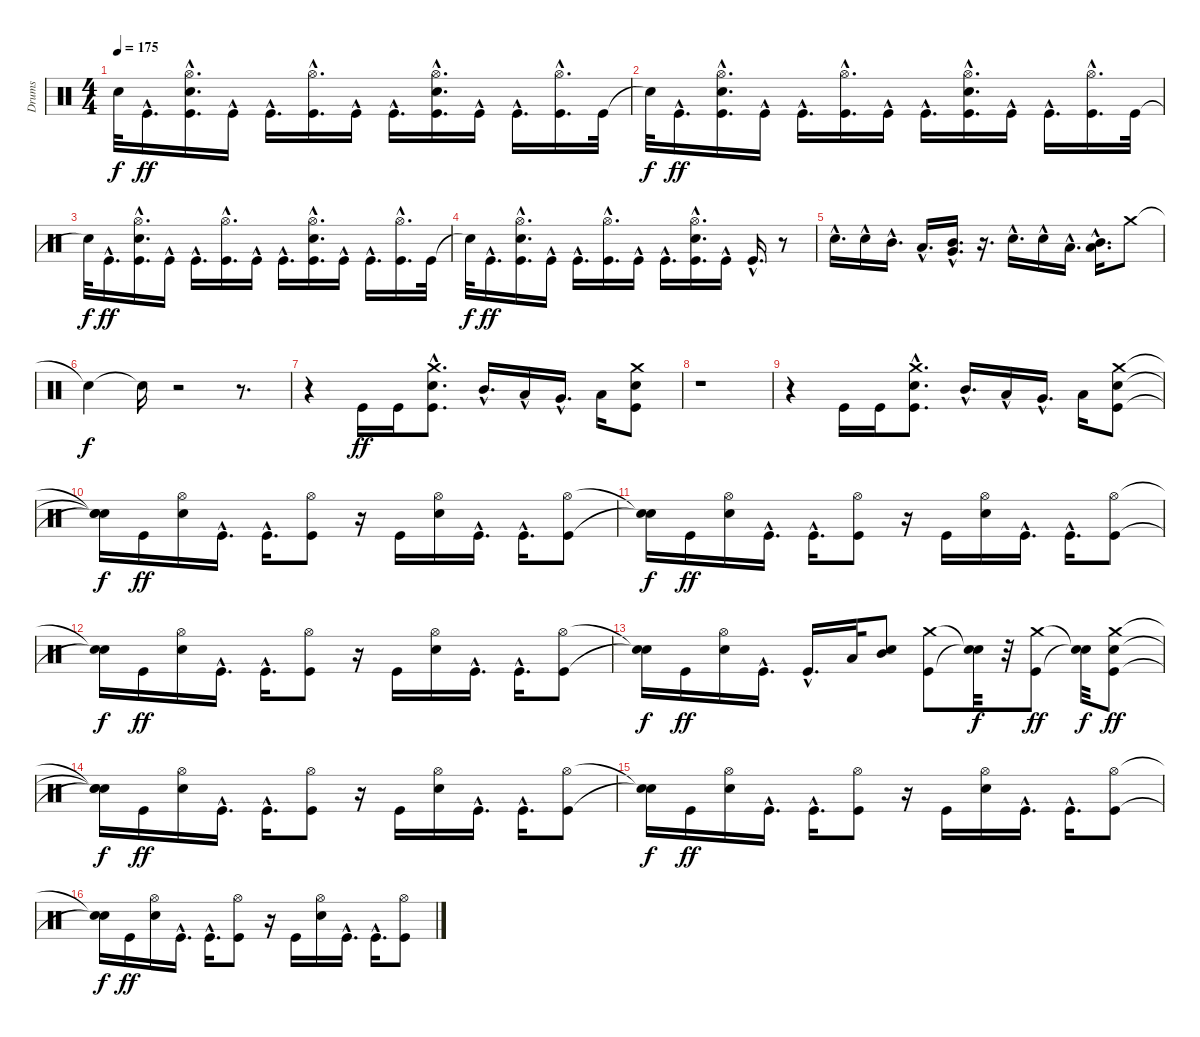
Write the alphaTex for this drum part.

\track ("Drums" "Drums") {instrument percussion}
\staff {score}
\articulation defaults
\ts (4 4)
\tempo 175
\clef neutral
\ks c "Snare (hit)"{t}.32{dy f} "Kick (hit)"{hac}.16{d dy ff}
("Kick (hit)"{hac} "Electric Snare (hit)"{hac} "Hi-Hat (open)"{hac}).16{d} "Kick (hit)"{hac}.16 "Kick (hit)"{hac}.16{d} ("Kick (hit)"{hac} "Hi-Hat (open)"{hac}).16{d} "Kick (hit)"{hac}.16 "Kick (hit)"{hac}.16{d} ("Kick (hit)"{hac} "Electric Snare (hit)"{hac} "Hi-Hat (open)"{hac}).16{d} "Kick (hit)"{hac}.16 "Kick (hit)"{hac}.16{d} ("Kick (hit)"{hac} "Hi-Hat (open)"{hac}).16{d} "Kick (hit)".32 |
"Snare (hit)"{t}.32{dy f} "Kick (hit)"{hac}.16{d dy ff} ("Kick (hit)"{hac} "Electric Snare (hit)"{hac} "Hi-Hat (open)"{hac}).16{d} "Kick (hit)"{hac}.16 "Kick (hit)"{hac}.16{d} ("Kick (hit)"{hac} "Hi-Hat (open)"{hac}).16{d} "Kick (hit)"{hac}.16 "Kick (hit)"{hac}.16{d} ("Kick (hit)"{hac} "Electric Snare (hit)"{hac} "Hi-Hat (open)"{hac}).16{d} "Kick (hit)"{hac}.16 "Kick (hit)"{hac}.16{d} ("Kick (hit)"{hac} "Hi-Hat (open)"{hac}).16{d} "Kick (hit)".32 |
"Snare (hit)"{t}.32{dy f} "Kick (hit)"{hac}.16{d dy ff} ("Kick (hit)"{hac} "Electric Snare (hit)"{hac} "Hi-Hat (open)"{hac}).16{d} "Kick (hit)"{hac}.16 "Kick (hit)"{hac}.16{d} ("Kick (hit)"{hac} "Hi-Hat (open)"{hac}).16{d} "Kick (hit)"{hac}.16 "Kick (hit)"{hac}.16{d} ("Kick (hit)"{hac} "Electric Snare (hit)"{hac} "Hi-Hat (open)"{hac}).16{d} "Kick (hit)"{hac}.16 "Kick (hit)"{hac}.16{d} ("Kick (hit)"{hac} "Hi-Hat (open)"{hac}).16{d} "Kick (hit)".32 |
"Snare (hit)"{t}.32{dy f} "Kick (hit)"{hac}.16{d dy ff} ("Kick (hit)"{hac} "Electric Snare (hit)"{hac} "Hi-Hat (open)"{hac}).16{d} "Kick (hit)"{hac}.16 "Kick (hit)"{hac}.16{d} ("Kick (hit)"{hac} "Hi-Hat (open)"{hac}).16{d} "Kick (hit)"{hac}.16 "Kick (hit)"{hac}.16{d} ("Kick (hit)"{hac} "Electric Snare (hit)"{hac} "Hi-Hat (open)"{hac}).16{d} "Kick (hit)"{hac}.16 "Kick (hit)"{hac}.16{d} r.8 |
"Electric Snare (hit)"{hac}.16{d} "Electric Snare (hit)"{hac}.16 "Mid Tom (hit)"{hac}.16{d} "Low Tom (hit)"{hac}.16{d} ("Very Low Tom (hit)"{hac} "Mid Tom (hit)"{hac}).16{d} r.16{d} "Electric Snare (hit)"{hac}.16{d} "Electric Snare (hit)"{hac}.16 "Low Tom (hit)"{hac}.16{d} ("Low Floor Tom (hit)"{hac} "Mid Tom (hit)"{hac}).16{d} "Crash medium (hit)".8 |
"Snare (hit)"{t}.4{dy f} "Snare (hit)"{t}.16 r.2 r.8{d} |
r.4 "Kick (hit)".16{dy ff} "Kick (hit)".16 ("Kick (hit)"{hac} "Electric Snare (hit)"{hac} "Crash medium (hit)"{hac}).8{d} "Mid Tom (hit)"{hac}.16{d} "Low Tom (hit)"{hac}.16 "Very Low Tom (hit)"{hac}.16{d} "Low Floor Tom (hit)".16 ("Kick (hit)" "Electric Snare (hit)" "Crash medium (hit)").8 |
r.1 |
r.4 "Kick (hit)".16 "Kick (hit)".16 ("Kick (hit)"{hac} "Electric Snare (hit)"{hac} "Crash medium (hit)"{hac}).8{d} "Mid Tom (hit)"{hac}.16{d} "Low Tom (hit)"{hac}.16 "Very Low Tom (hit)"{hac}.16{d} "Low Floor Tom (hit)".16 ("Kick (hit)" "Electric Snare (hit)" "Crash medium (hit)").8 |
("Snare (hit)"{t} "Snare (hit)"{t} "Snare (hit)"{t}).16{dy f} "Kick (hit)".16{dy ff} ("Electric Snare (hit)" "Hi-Hat (open)").16 "Kick (hit)"{hac}.16{d} "Kick (hit)"{hac}.16{d} ("Kick (hit)" "Hi-Hat (open)").8 r.16 "Kick (hit)".16 ("Electric Snare (hit)" "Hi-Hat (open)").16 "Kick (hit)"{hac}.16{d} "Kick (hit)"{hac}.16{d} ("Kick (hit)" "Hi-Hat (open)").8 |
("Snare (hit)"{t} "Snare (hit)"{t}).16{dy f} "Kick (hit)".16{dy ff} ("Electric Snare (hit)" "Hi-Hat (open)").16 "Kick (hit)"{hac}.16{d} "Kick (hit)"{hac}.16{d} ("Kick (hit)" "Hi-Hat (open)").8 r.16 "Kick (hit)".16 ("Electric Snare (hit)" "Hi-Hat (open)").16 "Kick (hit)"{hac}.16{d} "Kick (hit)"{hac}.16{d} ("Kick (hit)" "Hi-Hat (open)").8 |
("Snare (hit)"{t} "Snare (hit)"{t}).16{dy f} "Kick (hit)".16{dy ff} ("Electric Snare (hit)" "Hi-Hat (open)").16 "Kick (hit)"{hac}.16{d} "Kick (hit)"{hac}.16{d} ("Kick (hit)" "Hi-Hat (open)").8 r.16 "Kick (hit)".16 ("Electric Snare (hit)" "Hi-Hat (open)").16 "Kick (hit)"{hac}.16{d} "Kick (hit)"{hac}.16{d} ("Kick (hit)" "Hi-Hat (open)").8 |
("Snare (hit)"{t} "Snare (hit)"{t}).16{dy f} "Kick (hit)".16{dy ff} ("Electric Snare (hit)" "Hi-Hat (open)").16 "Kick (hit)"{hac}.16{d} "Kick (hit)"{hac}.16{d} "Low Floor Tom (hit)".32 ("Electric Snare (hit)" "Mid Tom (hit)").8 ("Kick (hit)" "Crash medium (hit)").8 ("Snare (hit)"{t} "Snare (hit)"{t}).32{dy f} r.32 ("Kick (hit)" "Crash medium (hit)").8{dy ff} ("Snare (hit)"{t} "Snare (hit)"{t}).32{dy f} ("Kick (hit)" "Electric Snare (hit)" "Crash medium (hit)").8{dy ff} |
("Snare (hit)"{t} "Snare (hit)"{t} "Snare (hit)"{t}).16{dy f} "Kick (hit)".16{dy ff} ("Electric Snare (hit)" "Hi-Hat (open)").16 "Kick (hit)"{hac}.16{d} "Kick (hit)"{hac}.16{d} ("Kick (hit)" "Hi-Hat (open)").8 r.16 "Kick (hit)".16 ("Electric Snare (hit)" "Hi-Hat (open)").16 "Kick (hit)"{hac}.16{d} "Kick (hit)"{hac}.16{d} ("Kick (hit)" "Hi-Hat (open)").8 |
("Snare (hit)"{t} "Snare (hit)"{t}).16{dy f} "Kick (hit)".16{dy ff} ("Electric Snare (hit)" "Hi-Hat (open)").16 "Kick (hit)"{hac}.16{d} "Kick (hit)"{hac}.16{d} ("Kick (hit)" "Hi-Hat (open)").8 r.16 "Kick (hit)".16 ("Electric Snare (hit)" "Hi-Hat (open)").16 "Kick (hit)"{hac}.16{d} "Kick (hit)"{hac}.16{d} ("Kick (hit)" "Hi-Hat (open)").8 |
("Snare (hit)"{t} "Snare (hit)"{t}).16{dy f} "Kick (hit)".16{dy ff} ("Electric Snare (hit)" "Hi-Hat (open)").16 "Kick (hit)"{hac}.16{d} "Kick (hit)"{hac}.16{d} ("Kick (hit)" "Hi-Hat (open)").8 r.16 "Kick (hit)".16 ("Electric Snare (hit)" "Hi-Hat (open)").16 "Kick (hit)"{hac}.16{d} "Kick (hit)"{hac}.16{d} ("Kick (hit)" "Hi-Hat (open)").8
